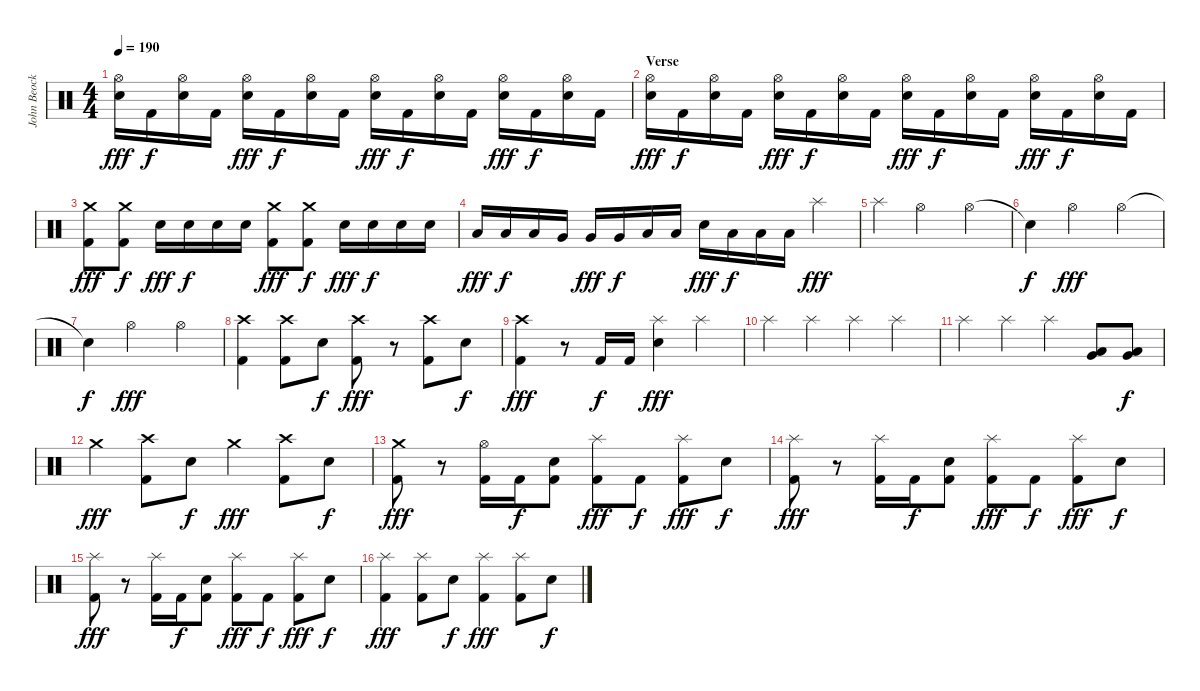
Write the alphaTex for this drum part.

\track ("John Beocklin (Drums)" "John Beock") {instrument percussion}
\staff {score}
\articulation defaults
\ts (4 4)
\tempo 190
\clef neutral
\ks c
("Hi-Hat (open)" "Snare (hit) 2").16{dy fff} "Kick (hit) 2".16{dy f} ("Hi-Hat (open)" "Snare (hit) 2").16 "Kick (hit) 2".16 ("Hi-Hat (open)" "Snare (hit) 2").16{dy fff} "Kick (hit) 2".16{dy f} ("Hi-Hat (open)" "Snare (hit) 2").16 "Kick (hit) 2".16 ("Hi-Hat (open)" "Snare (hit) 2").16{dy fff} "Kick (hit) 2".16{dy f} ("Hi-Hat (open)" "Snare (hit) 2").16 "Kick (hit) 2".16 ("Hi-Hat (open)" "Snare (hit) 2").16{dy fff} "Kick (hit) 2".16{dy f} ("Hi-Hat (open)" "Snare (hit) 2").16 "Kick (hit) 2".16 |
\section ("" "Verse")
("Hi-Hat (open)" "Snare (hit) 2").16{dy fff} "Kick (hit) 2".16{dy f} ("Hi-Hat (open)" "Snare (hit) 2").16 "Kick (hit) 2".16 ("Hi-Hat (open)" "Snare (hit) 2").16{dy fff} "Kick (hit) 2".16{dy f} ("Hi-Hat (open)" "Snare (hit) 2").16 "Kick (hit) 2".16 ("Hi-Hat (open)" "Snare (hit) 2").16{dy fff} "Kick (hit) 2".16{dy f} ("Hi-Hat (open)" "Snare (hit) 2").16 "Kick (hit) 2".16 ("Hi-Hat (open)" "Snare (hit) 2").16{dy fff} "Kick (hit) 2".16{dy f} ("Hi-Hat (open)" "Snare (hit) 2").16 "Kick (hit) 2".16 |
("Crash medium (hit)" "Kick (hit) 2").8{dy fff} ("Crash medium (hit)" "Kick (hit) 2").8{dy f} "Snare (hit) 2".16{dy fff} "Snare (hit) 2".16{dy f} "Snare (hit) 2".16 "Snare (hit) 2".16 ("Crash medium (hit)" "Kick (hit) 2").8{dy fff} ("Crash medium (hit)" "Kick (hit) 2").8{dy f} "Snare (hit) 2".16{dy fff} "Snare (hit) 2".16{dy f} "Snare (hit) 2".16 "Snare (hit) 2".16 |
"Low Tom (hit)".16{dy fff} "Low Tom (hit)".16{dy f} "Low Tom (hit)".16 "Very Low Tom (hit)".16 "Very Low Tom (hit)".16{dy fff} "Very Low Tom (hit)".16{dy f} "Low Floor Tom (hit)".16 "Low Floor Tom (hit)".16 "Snare (hit) 2".16{dy fff} "Low Tom (hit)".16{dy f} "Low Tom (hit)".16 "Low Tom (hit)".16 "Splash (hit)".4{dy fff} |
"Splash (hit)".4 "Hi-Hat (open)".2 "Hi-Hat (open)".4 |
"Snare (hit)"{t}.4{dy f} "Hi-Hat (open)".2{dy fff} "Hi-Hat (open)".4 |
"Snare (hit)"{t}.4{dy f} "Hi-Hat (open)".2{dy fff} "Hi-Hat (open)".4 |
("Crash high (hit)" "Kick (hit) 2").4 ("Crash high (hit)" "Kick (hit) 2").8 "Snare (hit) 2".8{dy f} ("Crash high (hit)" "Kick (hit) 2").8{dy fff} r.8 ("Crash high (hit)" "Kick (hit) 2").8 "Snare (hit) 2".8{dy f} |
("Crash high (hit)" "Kick (hit) 2").4{dy fff} r.8 "Kick (hit) 2".16{dy f} "Kick (hit) 2".16 ("Splash (hit)" "Snare (hit) 2").4{dy fff} "Splash (hit)".4 |
"Splash (hit)".4 "Splash (hit)".4 "Splash (hit)".4 "Splash (hit)".4 |
"Splash (hit)".4 "Splash (hit)".4 "Splash (hit)".4 ("Very Low Tom (hit)" "Low Floor Tom (hit)").8 ("Very Low Tom (hit)" "Low Floor Tom (hit)").8{dy f} |
"Crash medium (hit)".4{dy fff} ("Crash high (hit)" "Kick (hit) 2").8 "Snare (hit) 2".8{dy f} "Crash medium (hit)".4{dy fff} ("Crash high (hit)" "Kick (hit) 2").8 "Snare (hit) 2".8{dy f} |
("Crash medium (hit)" "Kick (hit) 2").8{dy fff} r.8 ("Hi-Hat (open)" "Kick (hit) 2").16 "Kick (hit) 2".16{dy f} ("Snare (hit) 2" "Kick (hit) 2").8 ("Splash (hit)" "Kick (hit) 2").8{dy fff} "Kick (hit) 2".8{dy f} ("Splash (hit)" "Kick (hit) 2").8{dy fff} "Snare (hit) 2".8{dy f} |
("Splash (hit)" "Kick (hit) 2").8{dy fff} r.8 ("Splash (hit)" "Kick (hit) 2").16 "Kick (hit) 2".16{dy f} ("Snare (hit) 2" "Kick (hit) 2").8 ("Splash (hit)" "Kick (hit) 2").8{dy fff} "Kick (hit) 2".8{dy f} ("Splash (hit)" "Kick (hit) 2").8{dy fff} "Snare (hit) 2".8{dy f} |
("Splash (hit)" "Kick (hit) 2").8{dy fff} r.8 ("Splash (hit)" "Kick (hit) 2").16 "Kick (hit) 2".16{dy f} ("Snare (hit) 2" "Kick (hit) 2").8 ("Splash (hit)" "Kick (hit) 2").8{dy fff} "Kick (hit) 2".8{dy f} ("Splash (hit)" "Kick (hit) 2").8{dy fff} "Snare (hit) 2".8{dy f} |
("Splash (hit)" "Kick (hit) 2").4{dy fff} ("Splash (hit)" "Kick (hit) 2").8 "Snare (hit) 2".8{dy f} ("Splash (hit)" "Kick (hit) 2").4{dy fff} ("Splash (hit)" "Kick (hit) 2").8 "Snare (hit) 2".8{dy f}
